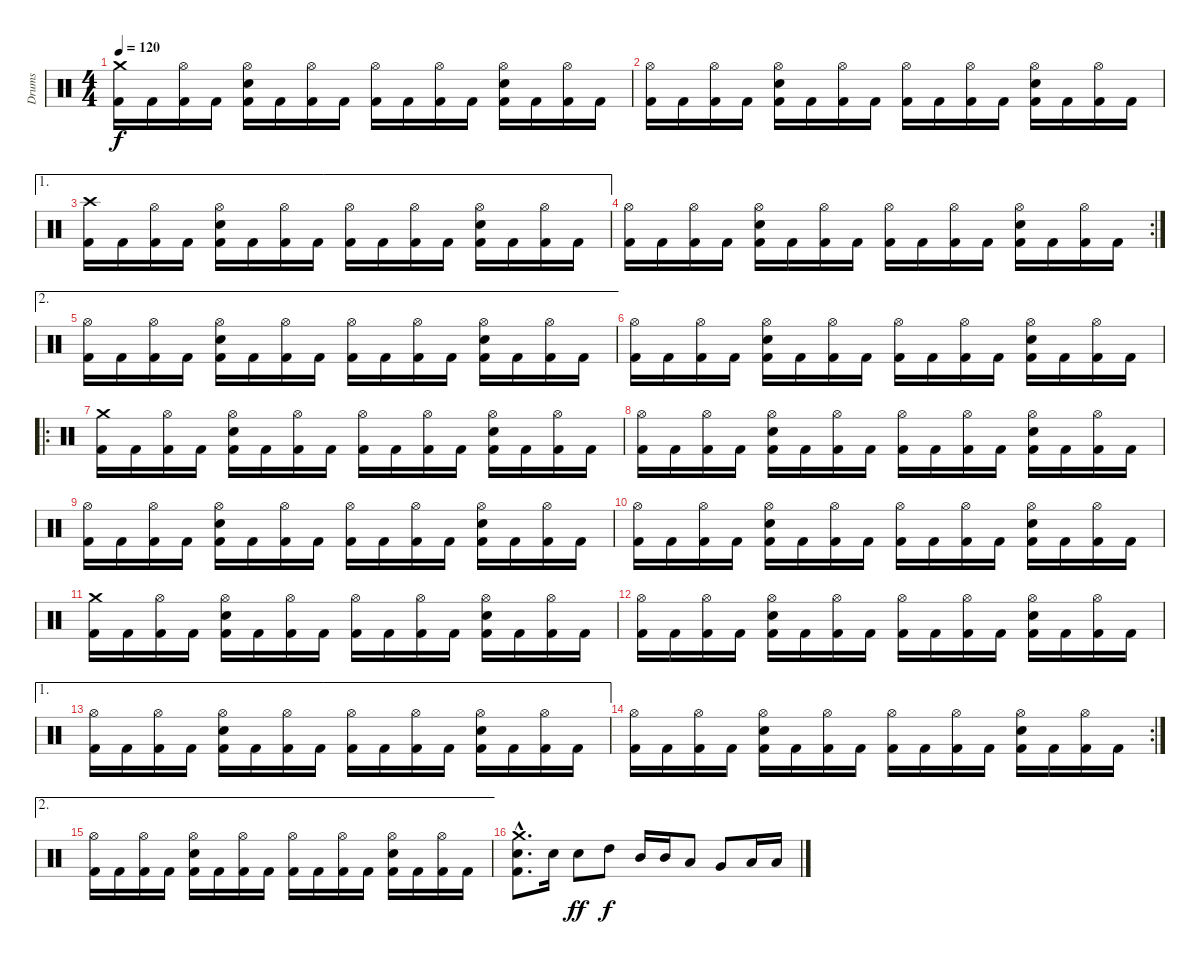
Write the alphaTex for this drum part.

\track ("Drums " "Drums ") {instrument percussion}
\staff {score}
\articulation defaults
\ts (4 4)
\tempo 120
\clef neutral
\ks c
("Crash medium (hit)" "Kick (hit) 2").16{dy f} "Kick (hit) 2".16 ("Hi-Hat (open)" "Kick (hit) 2").16 "Kick (hit) 2".16 ("Hi-Hat (open)" "Snare (hit) 2" "Kick (hit) 2").16 "Kick (hit) 2".16 ("Hi-Hat (open)" "Kick (hit) 2").16 "Kick (hit) 2".16 ("Hi-Hat (open)" "Kick (hit) 2").16 "Kick (hit) 2".16 ("Hi-Hat (open)" "Kick (hit) 2").16 "Kick (hit) 2".16 ("Hi-Hat (open)" "Snare (hit) 2" "Kick (hit) 2").16 "Kick (hit) 2".16 ("Hi-Hat (open)" "Kick (hit) 2").16 "Kick (hit) 2".16 |
("Hi-Hat (open)" "Kick (hit) 2").16 "Kick (hit) 2".16 ("Hi-Hat (open)" "Kick (hit) 2").16 "Kick (hit) 2".16 ("Hi-Hat (open)" "Snare (hit) 2" "Kick (hit) 2").16 "Kick (hit) 2".16 ("Hi-Hat (open)" "Kick (hit) 2").16 "Kick (hit) 2".16 ("Hi-Hat (open)" "Kick (hit) 2").16 "Kick (hit) 2".16 ("Hi-Hat (open)" "Kick (hit) 2").16 "Kick (hit) 2".16 ("Hi-Hat (open)" "Snare (hit) 2" "Kick (hit) 2").16 "Kick (hit) 2".16 ("Hi-Hat (open)" "Kick (hit) 2").16 "Kick (hit) 2".16 |
\ae 1
("Crash high (hit)" "Kick (hit) 2").16 "Kick (hit) 2".16 ("Hi-Hat (open)" "Kick (hit) 2").16 "Kick (hit) 2".16 ("Hi-Hat (open)" "Snare (hit) 2" "Kick (hit) 2").16 "Kick (hit) 2".16 ("Hi-Hat (open)" "Kick (hit) 2").16 "Kick (hit) 2".16 ("Hi-Hat (open)" "Kick (hit) 2").16 "Kick (hit) 2".16 ("Hi-Hat (open)" "Kick (hit) 2").16 "Kick (hit) 2".16 ("Hi-Hat (open)" "Snare (hit) 2" "Kick (hit) 2").16 "Kick (hit) 2".16 ("Hi-Hat (open)" "Kick (hit) 2").16 "Kick (hit) 2".16 |
\rc 2
("Hi-Hat (open)" "Kick (hit) 2").16 "Kick (hit) 2".16 ("Hi-Hat (open)" "Kick (hit) 2").16 "Kick (hit) 2".16 ("Hi-Hat (open)" "Snare (hit) 2" "Kick (hit) 2").16 "Kick (hit) 2".16 ("Hi-Hat (open)" "Kick (hit) 2").16 "Kick (hit) 2".16 ("Hi-Hat (open)" "Kick (hit) 2").16 "Kick (hit) 2".16 ("Hi-Hat (open)" "Kick (hit) 2").16 "Kick (hit) 2".16 ("Hi-Hat (open)" "Snare (hit) 2" "Kick (hit) 2").16 "Kick (hit) 2".16 ("Hi-Hat (open)" "Kick (hit) 2").16 "Kick (hit) 2".16 |
\ae 2
("Hi-Hat (open)" "Kick (hit) 2").16 "Kick (hit) 2".16 ("Hi-Hat (open)" "Kick (hit) 2").16 "Kick (hit) 2".16 ("Hi-Hat (open)" "Snare (hit) 2" "Kick (hit) 2").16 "Kick (hit) 2".16 ("Hi-Hat (open)" "Kick (hit) 2").16 "Kick (hit) 2".16 ("Hi-Hat (open)" "Kick (hit) 2").16 "Kick (hit) 2".16 ("Hi-Hat (open)" "Kick (hit) 2").16 "Kick (hit) 2".16 ("Hi-Hat (open)" "Snare (hit) 2" "Kick (hit) 2").16 "Kick (hit) 2".16 ("Hi-Hat (open)" "Kick (hit) 2").16 "Kick (hit) 2".16 |
("Hi-Hat (open)" "Kick (hit) 2").16 "Kick (hit) 2".16 ("Hi-Hat (open)" "Kick (hit) 2").16 "Kick (hit) 2".16 ("Hi-Hat (open)" "Snare (hit) 2" "Kick (hit) 2").16 "Kick (hit) 2".16 ("Hi-Hat (open)" "Kick (hit) 2").16 "Kick (hit) 2".16 ("Hi-Hat (open)" "Kick (hit) 2").16 "Kick (hit) 2".16 ("Hi-Hat (open)" "Kick (hit) 2").16 "Kick (hit) 2".16 ("Hi-Hat (open)" "Snare (hit) 2" "Kick (hit) 2").16 "Kick (hit) 2".16 ("Hi-Hat (open)" "Kick (hit) 2").16 "Kick (hit) 2".16 |
\ro
("Crash medium (hit)" "Kick (hit) 2").16 "Kick (hit) 2".16 ("Hi-Hat (open)" "Kick (hit) 2").16 "Kick (hit) 2".16 ("Hi-Hat (open)" "Snare (hit) 2" "Kick (hit) 2").16 "Kick (hit) 2".16 ("Hi-Hat (open)" "Kick (hit) 2").16 "Kick (hit) 2".16 ("Hi-Hat (open)" "Kick (hit) 2").16 "Kick (hit) 2".16 ("Hi-Hat (open)" "Kick (hit) 2").16 "Kick (hit) 2".16 ("Hi-Hat (open)" "Snare (hit) 2" "Kick (hit) 2").16 "Kick (hit) 2".16 ("Hi-Hat (open)" "Kick (hit) 2").16 "Kick (hit) 2".16 |
("Hi-Hat (open)" "Kick (hit) 2").16 "Kick (hit) 2".16 ("Hi-Hat (open)" "Kick (hit) 2").16 "Kick (hit) 2".16 ("Hi-Hat (open)" "Snare (hit) 2" "Kick (hit) 2").16 "Kick (hit) 2".16 ("Hi-Hat (open)" "Kick (hit) 2").16 "Kick (hit) 2".16 ("Hi-Hat (open)" "Kick (hit) 2").16 "Kick (hit) 2".16 ("Hi-Hat (open)" "Kick (hit) 2").16 "Kick (hit) 2".16 ("Hi-Hat (open)" "Snare (hit) 2" "Kick (hit) 2").16 "Kick (hit) 2".16 ("Hi-Hat (open)" "Kick (hit) 2").16 "Kick (hit) 2".16 |
("Hi-Hat (open)" "Kick (hit) 2").16 "Kick (hit) 2".16 ("Hi-Hat (open)" "Kick (hit) 2").16 "Kick (hit) 2".16 ("Hi-Hat (open)" "Snare (hit) 2" "Kick (hit) 2").16 "Kick (hit) 2".16 ("Hi-Hat (open)" "Kick (hit) 2").16 "Kick (hit) 2".16 ("Hi-Hat (open)" "Kick (hit) 2").16 "Kick (hit) 2".16 ("Hi-Hat (open)" "Kick (hit) 2").16 "Kick (hit) 2".16 ("Hi-Hat (open)" "Snare (hit) 2" "Kick (hit) 2").16 "Kick (hit) 2".16 ("Hi-Hat (open)" "Kick (hit) 2").16 "Kick (hit) 2".16 |
("Hi-Hat (open)" "Kick (hit) 2").16 "Kick (hit) 2".16 ("Hi-Hat (open)" "Kick (hit) 2").16 "Kick (hit) 2".16 ("Hi-Hat (open)" "Snare (hit) 2" "Kick (hit) 2").16 "Kick (hit) 2".16 ("Hi-Hat (open)" "Kick (hit) 2").16 "Kick (hit) 2".16 ("Hi-Hat (open)" "Kick (hit) 2").16 "Kick (hit) 2".16 ("Hi-Hat (open)" "Kick (hit) 2").16 "Kick (hit) 2".16 ("Hi-Hat (open)" "Snare (hit) 2" "Kick (hit) 2").16 "Kick (hit) 2".16 ("Hi-Hat (open)" "Kick (hit) 2").16 "Kick (hit) 2".16 |
("Crash medium (hit)" "Kick (hit) 2").16 "Kick (hit) 2".16 ("Hi-Hat (open)" "Kick (hit) 2").16 "Kick (hit) 2".16 ("Hi-Hat (open)" "Snare (hit) 2" "Kick (hit) 2").16 "Kick (hit) 2".16 ("Hi-Hat (open)" "Kick (hit) 2").16 "Kick (hit) 2".16 ("Hi-Hat (open)" "Kick (hit) 2").16 "Kick (hit) 2".16 ("Hi-Hat (open)" "Kick (hit) 2").16 "Kick (hit) 2".16 ("Hi-Hat (open)" "Snare (hit) 2" "Kick (hit) 2").16 "Kick (hit) 2".16 ("Hi-Hat (open)" "Kick (hit) 2").16 "Kick (hit) 2".16 |
("Hi-Hat (open)" "Kick (hit) 2").16 "Kick (hit) 2".16 ("Hi-Hat (open)" "Kick (hit) 2").16 "Kick (hit) 2".16 ("Hi-Hat (open)" "Snare (hit) 2" "Kick (hit) 2").16 "Kick (hit) 2".16 ("Hi-Hat (open)" "Kick (hit) 2").16 "Kick (hit) 2".16 ("Hi-Hat (open)" "Kick (hit) 2").16 "Kick (hit) 2".16 ("Hi-Hat (open)" "Kick (hit) 2").16 "Kick (hit) 2".16 ("Hi-Hat (open)" "Snare (hit) 2" "Kick (hit) 2").16 "Kick (hit) 2".16 ("Hi-Hat (open)" "Kick (hit) 2").16 "Kick (hit) 2".16 |
\ae 1
("Hi-Hat (open)" "Kick (hit) 2").16 "Kick (hit) 2".16 ("Hi-Hat (open)" "Kick (hit) 2").16 "Kick (hit) 2".16 ("Hi-Hat (open)" "Snare (hit) 2" "Kick (hit) 2").16 "Kick (hit) 2".16 ("Hi-Hat (open)" "Kick (hit) 2").16 "Kick (hit) 2".16 ("Hi-Hat (open)" "Kick (hit) 2").16 "Kick (hit) 2".16 ("Hi-Hat (open)" "Kick (hit) 2").16 "Kick (hit) 2".16 ("Hi-Hat (open)" "Snare (hit) 2" "Kick (hit) 2").16 "Kick (hit) 2".16 ("Hi-Hat (open)" "Kick (hit) 2").16 "Kick (hit) 2".16 |
\rc 2
("Hi-Hat (open)" "Kick (hit) 2").16 "Kick (hit) 2".16 ("Hi-Hat (open)" "Kick (hit) 2").16 "Kick (hit) 2".16 ("Hi-Hat (open)" "Snare (hit) 2" "Kick (hit) 2").16 "Kick (hit) 2".16 ("Hi-Hat (open)" "Kick (hit) 2").16 "Kick (hit) 2".16 ("Hi-Hat (open)" "Kick (hit) 2").16 "Kick (hit) 2".16 ("Hi-Hat (open)" "Kick (hit) 2").16 "Kick (hit) 2".16 ("Hi-Hat (open)" "Snare (hit) 2" "Kick (hit) 2").16 "Kick (hit) 2".16 ("Hi-Hat (open)" "Kick (hit) 2").16 "Kick (hit) 2".16 |
\ae 2
("Hi-Hat (open)" "Kick (hit) 2").16 "Kick (hit) 2".16 ("Hi-Hat (open)" "Kick (hit) 2").16 "Kick (hit) 2".16 ("Hi-Hat (open)" "Snare (hit) 2" "Kick (hit) 2").16 "Kick (hit) 2".16 ("Hi-Hat (open)" "Kick (hit) 2").16 "Kick (hit) 2".16 ("Hi-Hat (open)" "Kick (hit) 2").16 "Kick (hit) 2".16 ("Hi-Hat (open)" "Kick (hit) 2").16 "Kick (hit) 2".16 ("Hi-Hat (open)" "Snare (hit) 2" "Kick (hit) 2").16 "Kick (hit) 2".16 ("Hi-Hat (open)" "Kick (hit) 2").16 "Kick (hit) 2".16 |
("Crash medium (hit)"{hac} "Snare (hit) 2"{hac} "Kick (hit) 2"{hac}).8{d} "Snare (hit) 2".16 "Snare (hit) 2".8{dy ff} "High Tom (hit)".8{dy f} "Mid Tom (hit)".16 "Mid Tom (hit)".16 "Low Tom (hit)".8 "Very Low Tom (hit)".8 "Low Floor Tom (hit)".16 "Low Floor Tom (hit)".16
